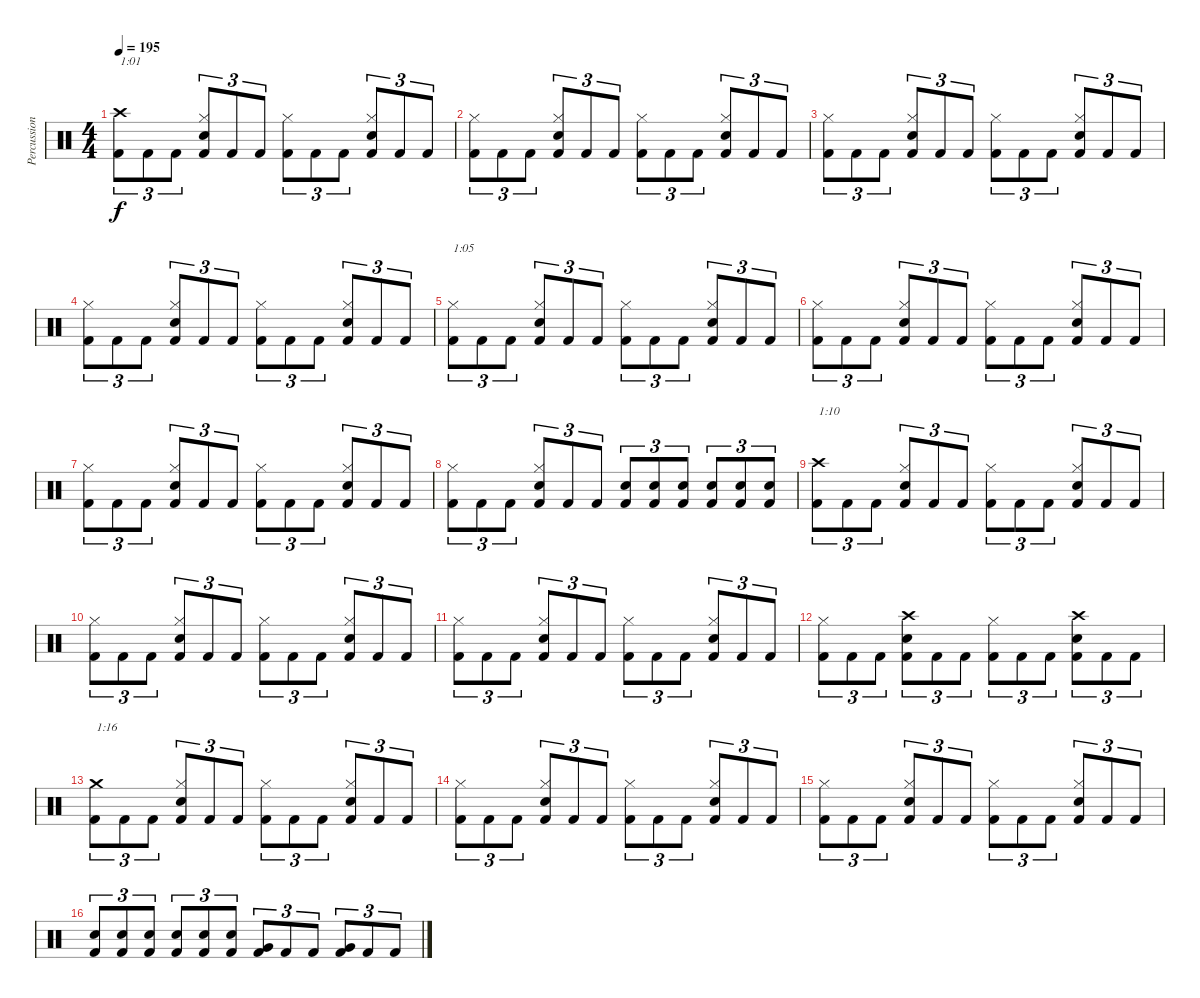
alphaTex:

\track ("Percussion" "Percussion") {instrument percussion}
\staff {score}
\articulation defaults
\ts (4 4)
\tempo 195
\clef neutral
\ks c
("Crash high (hit)" "Kick (hit) 2").8{tu (3 2) txt "1:01" dy f} "Kick (hit) 2".8{tu (3 2)} "Kick (hit) 2".8{tu (3 2)} ("Hi-Hat (closed)" "Snare (hit) 2" "Kick (hit) 2").8{tu (3 2)} "Kick (hit) 2".8{tu (3 2)} "Kick (hit) 2".8{tu (3 2)} ("Hi-Hat (closed)" "Kick (hit) 2").8{tu (3 2)} "Kick (hit) 2".8{tu (3 2)} "Kick (hit) 2".8{tu (3 2)} ("Hi-Hat (closed)" "Snare (hit) 2" "Kick (hit) 2").8{tu (3 2)} "Kick (hit) 2".8{tu (3 2)} "Kick (hit) 2".8{tu (3 2)} |
("Hi-Hat (closed)" "Kick (hit) 2").8{tu (3 2)} "Kick (hit) 2".8{tu (3 2)} "Kick (hit) 2".8{tu (3 2)} ("Hi-Hat (closed)" "Snare (hit) 2" "Kick (hit) 2").8{tu (3 2)} "Kick (hit) 2".8{tu (3 2)} "Kick (hit) 2".8{tu (3 2)} ("Hi-Hat (closed)" "Kick (hit) 2").8{tu (3 2)} "Kick (hit) 2".8{tu (3 2)} "Kick (hit) 2".8{tu (3 2)} ("Hi-Hat (closed)" "Snare (hit) 2" "Kick (hit) 2").8{tu (3 2)} "Kick (hit) 2".8{tu (3 2)} "Kick (hit) 2".8{tu (3 2)} |
("Hi-Hat (closed)" "Kick (hit) 2").8{tu (3 2)} "Kick (hit) 2".8{tu (3 2)} "Kick (hit) 2".8{tu (3 2)} ("Hi-Hat (closed)" "Snare (hit) 2" "Kick (hit) 2").8{tu (3 2)} "Kick (hit) 2".8{tu (3 2)} "Kick (hit) 2".8{tu (3 2)} ("Hi-Hat (closed)" "Kick (hit) 2").8{tu (3 2)} "Kick (hit) 2".8{tu (3 2)} "Kick (hit) 2".8{tu (3 2)} ("Hi-Hat (closed)" "Snare (hit) 2" "Kick (hit) 2").8{tu (3 2)} "Kick (hit) 2".8{tu (3 2)} "Kick (hit) 2".8{tu (3 2)} |
("Hi-Hat (closed)" "Kick (hit) 2").8{tu (3 2)} "Kick (hit) 2".8{tu (3 2)} "Kick (hit) 2".8{tu (3 2)} ("Hi-Hat (closed)" "Snare (hit) 2" "Kick (hit) 2").8{tu (3 2)} "Kick (hit) 2".8{tu (3 2)} "Kick (hit) 2".8{tu (3 2)} ("Hi-Hat (closed)" "Kick (hit) 2").8{tu (3 2)} "Kick (hit) 2".8{tu (3 2)} "Kick (hit) 2".8{tu (3 2)} ("Hi-Hat (closed)" "Snare (hit) 2" "Kick (hit) 2").8{tu (3 2)} "Kick (hit) 2".8{tu (3 2)} "Kick (hit) 2".8{tu (3 2)} |
("Hi-Hat (closed)" "Kick (hit) 2").8{tu (3 2) txt "1:05"} "Kick (hit) 2".8{tu (3 2)} "Kick (hit) 2".8{tu (3 2)} ("Hi-Hat (closed)" "Snare (hit) 2" "Kick (hit) 2").8{tu (3 2)} "Kick (hit) 2".8{tu (3 2)} "Kick (hit) 2".8{tu (3 2)} ("Hi-Hat (closed)" "Kick (hit) 2").8{tu (3 2)} "Kick (hit) 2".8{tu (3 2)} "Kick (hit) 2".8{tu (3 2)} ("Hi-Hat (closed)" "Snare (hit) 2" "Kick (hit) 2").8{tu (3 2)} "Kick (hit) 2".8{tu (3 2)} "Kick (hit) 2".8{tu (3 2)} |
("Hi-Hat (closed)" "Kick (hit) 2").8{tu (3 2)} "Kick (hit) 2".8{tu (3 2)} "Kick (hit) 2".8{tu (3 2)} ("Hi-Hat (closed)" "Snare (hit) 2" "Kick (hit) 2").8{tu (3 2)} "Kick (hit) 2".8{tu (3 2)} "Kick (hit) 2".8{tu (3 2)} ("Hi-Hat (closed)" "Kick (hit) 2").8{tu (3 2)} "Kick (hit) 2".8{tu (3 2)} "Kick (hit) 2".8{tu (3 2)} ("Hi-Hat (closed)" "Snare (hit) 2" "Kick (hit) 2").8{tu (3 2)} "Kick (hit) 2".8{tu (3 2)} "Kick (hit) 2".8{tu (3 2)} |
("Hi-Hat (closed)" "Kick (hit) 2").8{tu (3 2)} "Kick (hit) 2".8{tu (3 2)} "Kick (hit) 2".8{tu (3 2)} ("Hi-Hat (closed)" "Snare (hit) 2" "Kick (hit) 2").8{tu (3 2)} "Kick (hit) 2".8{tu (3 2)} "Kick (hit) 2".8{tu (3 2)} ("Hi-Hat (closed)" "Kick (hit) 2").8{tu (3 2)} "Kick (hit) 2".8{tu (3 2)} "Kick (hit) 2".8{tu (3 2)} ("Hi-Hat (closed)" "Snare (hit) 2" "Kick (hit) 2").8{tu (3 2)} "Kick (hit) 2".8{tu (3 2)} "Kick (hit) 2".8{tu (3 2)} |
("Hi-Hat (closed)" "Kick (hit) 2").8{tu (3 2)} "Kick (hit) 2".8{tu (3 2)} "Kick (hit) 2".8{tu (3 2)} ("Hi-Hat (closed)" "Snare (hit) 2" "Kick (hit) 2").8{tu (3 2)} "Kick (hit) 2".8{tu (3 2)} "Kick (hit) 2".8{tu (3 2)} ("Snare (hit) 2" "Kick (hit) 2").8{tu (3 2)} ("Snare (hit) 2" "Kick (hit) 2").8{tu (3 2)} ("Snare (hit) 2" "Kick (hit) 2").8{tu (3 2)} ("Snare (hit) 2" "Kick (hit) 2").8{tu (3 2)} ("Snare (hit) 2" "Kick (hit) 2").8{tu (3 2)} ("Snare (hit) 2" "Kick (hit) 2").8{tu (3 2)} |
("Crash high (hit)" "Kick (hit) 2").8{tu (3 2) txt "1:10"} "Kick (hit) 2".8{tu (3 2)} "Kick (hit) 2".8{tu (3 2)} ("Hi-Hat (closed)" "Snare (hit) 2" "Kick (hit) 2").8{tu (3 2)} "Kick (hit) 2".8{tu (3 2)} "Kick (hit) 2".8{tu (3 2)} ("Hi-Hat (closed)" "Kick (hit) 2").8{tu (3 2)} "Kick (hit) 2".8{tu (3 2)} "Kick (hit) 2".8{tu (3 2)} ("Hi-Hat (closed)" "Snare (hit) 2" "Kick (hit) 2").8{tu (3 2)} "Kick (hit) 2".8{tu (3 2)} "Kick (hit) 2".8{tu (3 2)} |
("Hi-Hat (closed)" "Kick (hit) 2").8{tu (3 2)} "Kick (hit) 2".8{tu (3 2)} "Kick (hit) 2".8{tu (3 2)} ("Hi-Hat (closed)" "Snare (hit) 2" "Kick (hit) 2").8{tu (3 2)} "Kick (hit) 2".8{tu (3 2)} "Kick (hit) 2".8{tu (3 2)} ("Hi-Hat (closed)" "Kick (hit) 2").8{tu (3 2)} "Kick (hit) 2".8{tu (3 2)} "Kick (hit) 2".8{tu (3 2)} ("Hi-Hat (closed)" "Snare (hit) 2" "Kick (hit) 2").8{tu (3 2)} "Kick (hit) 2".8{tu (3 2)} "Kick (hit) 2".8{tu (3 2)} |
("Hi-Hat (closed)" "Kick (hit) 2").8{tu (3 2)} "Kick (hit) 2".8{tu (3 2)} "Kick (hit) 2".8{tu (3 2)} ("Hi-Hat (closed)" "Snare (hit) 2" "Kick (hit) 2").8{tu (3 2)} "Kick (hit) 2".8{tu (3 2)} "Kick (hit) 2".8{tu (3 2)} ("Hi-Hat (closed)" "Kick (hit) 2").8{tu (3 2)} "Kick (hit) 2".8{tu (3 2)} "Kick (hit) 2".8{tu (3 2)} ("Hi-Hat (closed)" "Snare (hit) 2" "Kick (hit) 2").8{tu (3 2)} "Kick (hit) 2".8{tu (3 2)} "Kick (hit) 2".8{tu (3 2)} |
("Hi-Hat (closed)" "Kick (hit) 2").8{tu (3 2)} "Kick (hit) 2".8{tu (3 2)} "Kick (hit) 2".8{tu (3 2)} ("Crash high (hit)" "Snare (hit) 2" "Kick (hit) 2").8{tu (3 2)} "Kick (hit) 2".8{tu (3 2)} "Kick (hit) 2".8{tu (3 2)} ("Hi-Hat (closed)" "Kick (hit) 2").8{tu (3 2)} "Kick (hit) 2".8{tu (3 2)} "Kick (hit) 2".8{tu (3 2)} ("Crash high (hit)" "Snare (hit) 2" "Kick (hit) 2").8{tu (3 2)} "Kick (hit) 2".8{tu (3 2)} "Kick (hit) 2".8{tu (3 2)} |
("Crash medium (hit)" "Kick (hit) 2").8{tu (3 2) txt "1:16"} "Kick (hit) 2".8{tu (3 2)} "Kick (hit) 2".8{tu (3 2)} ("Hi-Hat (closed)" "Snare (hit) 2" "Kick (hit) 2").8{tu (3 2)} "Kick (hit) 2".8{tu (3 2)} "Kick (hit) 2".8{tu (3 2)} ("Hi-Hat (closed)" "Kick (hit) 2").8{tu (3 2)} "Kick (hit) 2".8{tu (3 2)} "Kick (hit) 2".8{tu (3 2)} ("Hi-Hat (closed)" "Snare (hit) 2" "Kick (hit) 2").8{tu (3 2)} "Kick (hit) 2".8{tu (3 2)} "Kick (hit) 2".8{tu (3 2)} |
("Hi-Hat (closed)" "Kick (hit) 2").8{tu (3 2)} "Kick (hit) 2".8{tu (3 2)} "Kick (hit) 2".8{tu (3 2)} ("Hi-Hat (closed)" "Snare (hit) 2" "Kick (hit) 2").8{tu (3 2)} "Kick (hit) 2".8{tu (3 2)} "Kick (hit) 2".8{tu (3 2)} ("Hi-Hat (closed)" "Kick (hit) 2").8{tu (3 2)} "Kick (hit) 2".8{tu (3 2)} "Kick (hit) 2".8{tu (3 2)} ("Hi-Hat (closed)" "Snare (hit) 2" "Kick (hit) 2").8{tu (3 2)} "Kick (hit) 2".8{tu (3 2)} "Kick (hit) 2".8{tu (3 2)} |
("Hi-Hat (closed)" "Kick (hit) 2").8{tu (3 2)} "Kick (hit) 2".8{tu (3 2)} "Kick (hit) 2".8{tu (3 2)} ("Hi-Hat (closed)" "Snare (hit) 2" "Kick (hit) 2").8{tu (3 2)} "Kick (hit) 2".8{tu (3 2)} "Kick (hit) 2".8{tu (3 2)} ("Hi-Hat (closed)" "Kick (hit) 2").8{tu (3 2)} "Kick (hit) 2".8{tu (3 2)} "Kick (hit) 2".8{tu (3 2)} ("Hi-Hat (closed)" "Snare (hit) 2" "Kick (hit) 2").8{tu (3 2)} "Kick (hit) 2".8{tu (3 2)} "Kick (hit) 2".8{tu (3 2)} |
("Snare (hit) 2" "Kick (hit) 2").8{tu (3 2)} ("Snare (hit) 2" "Kick (hit) 2").8{tu (3 2)} ("Snare (hit) 2" "Kick (hit) 2").8{tu (3 2)} ("Snare (hit) 2" "Kick (hit) 2").8{tu (3 2)} ("Snare (hit) 2" "Kick (hit) 2").8{tu (3 2)} ("Snare (hit) 2" "Kick (hit) 2").8{tu (3 2)} ("Very Low Tom (hit)" "Kick (hit) 2").8{tu (3 2)} "Kick (hit) 2".8{tu (3 2)} "Kick (hit) 2".8{tu (3 2)} ("Very Low Tom (hit)" "Kick (hit) 2").8{tu (3 2)} "Kick (hit) 2".8{tu (3 2)} "Kick (hit) 2".8{tu (3 2)}
